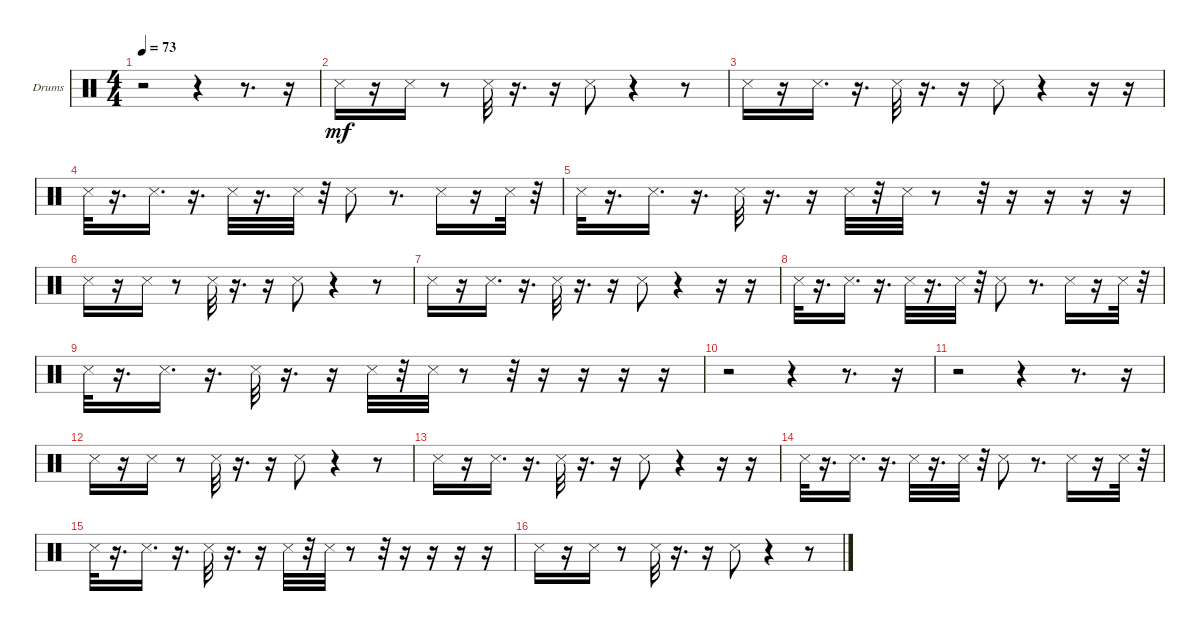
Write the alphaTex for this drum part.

\bracketExtendMode groupsimilarinstruments
\firstSystemTrackNameOrientation horizontal
\otherSystemsTrackNameOrientation horizontal
\track ("rim" "Drums") {instrument percussion}
\staff {score}
\articulation defaults
\ts (4 4)
\tempo 73
\clef neutral
\ks c
r.2{dy mf} r.4 r.8{d} r.16 |
"Snare (side stick) 3".16 r.16 "Snare (side stick) 3".16 r.8 "Snare (side stick) 3".32 r.16{d} r.16 "Snare (side stick) 3".8 r.4 r.8 |
"Snare (side stick) 3".16 r.16 "Snare (side stick) 3".16{d} r.16{d} "Snare (side stick) 3".32 r.16{d} r.16 "Snare (side stick) 3".8 r.4 r.16 r.16 |
"Snare (side stick) 3".32 r.16{d} "Snare (side stick) 3".16{d} r.16{d} "Snare (side stick) 3".32 r.16{d} "Snare (side stick) 3".32 r.32 "Snare (side stick) 3".8 r.8{d} "Snare (side stick) 3".16 r.16 "Snare (side stick) 3".32 r.32 |
"Snare (side stick) 3".32 r.16{d} "Snare (side stick) 3".16{d} r.16{d} "Snare (side stick) 3".32 r.16{d} r.16 "Snare (side stick) 3".32 r.32 "Snare (side stick) 3".32 r.8 r.32 r.16 r.16 r.16 r.16 |
"Snare (side stick) 3".16 r.16 "Snare (side stick) 3".16 r.8 "Snare (side stick) 3".32 r.16{d} r.16 "Snare (side stick) 3".8 r.4 r.8 |
"Snare (side stick) 3".16 r.16 "Snare (side stick) 3".16{d} r.16{d} "Snare (side stick) 3".32 r.16{d} r.16 "Snare (side stick) 3".8 r.4 r.16 r.16 |
"Snare (side stick) 3".32 r.16{d} "Snare (side stick) 3".16{d} r.16{d} "Snare (side stick) 3".32 r.16{d} "Snare (side stick) 3".32 r.32 "Snare (side stick) 3".8 r.8{d} "Snare (side stick) 3".16 r.16 "Snare (side stick) 3".32 r.32 |
"Snare (side stick) 3".32 r.16{d} "Snare (side stick) 3".16{d} r.16{d} "Snare (side stick) 3".32 r.16{d} r.16 "Snare (side stick) 3".32 r.32 "Snare (side stick) 3".32 r.8 r.32 r.16 r.16 r.16 r.16 |
r.2 r.4 r.8{d} r.16 |
r.2 r.4 r.8{d} r.16 |
"Snare (side stick) 3".16 r.16 "Snare (side stick) 3".16 r.8 "Snare (side stick) 3".32 r.16{d} r.16 "Snare (side stick) 3".8 r.4 r.8 |
"Snare (side stick) 3".16 r.16 "Snare (side stick) 3".16{d} r.16{d} "Snare (side stick) 3".32 r.16{d} r.16 "Snare (side stick) 3".8 r.4 r.16 r.16 |
"Snare (side stick) 3".32 r.16{d} "Snare (side stick) 3".16{d} r.16{d} "Snare (side stick) 3".32 r.16{d} "Snare (side stick) 3".32 r.32 "Snare (side stick) 3".8 r.8{d} "Snare (side stick) 3".16 r.16 "Snare (side stick) 3".32 r.32 |
"Snare (side stick) 3".32 r.16{d} "Snare (side stick) 3".16{d} r.16{d} "Snare (side stick) 3".32 r.16{d} r.16 "Snare (side stick) 3".32 r.32 "Snare (side stick) 3".32 r.8 r.32 r.16 r.16 r.16 r.16 |
"Snare (side stick) 3".16 r.16 "Snare (side stick) 3".16 r.8 "Snare (side stick) 3".32 r.16{d} r.16 "Snare (side stick) 3".8 r.4 r.8
